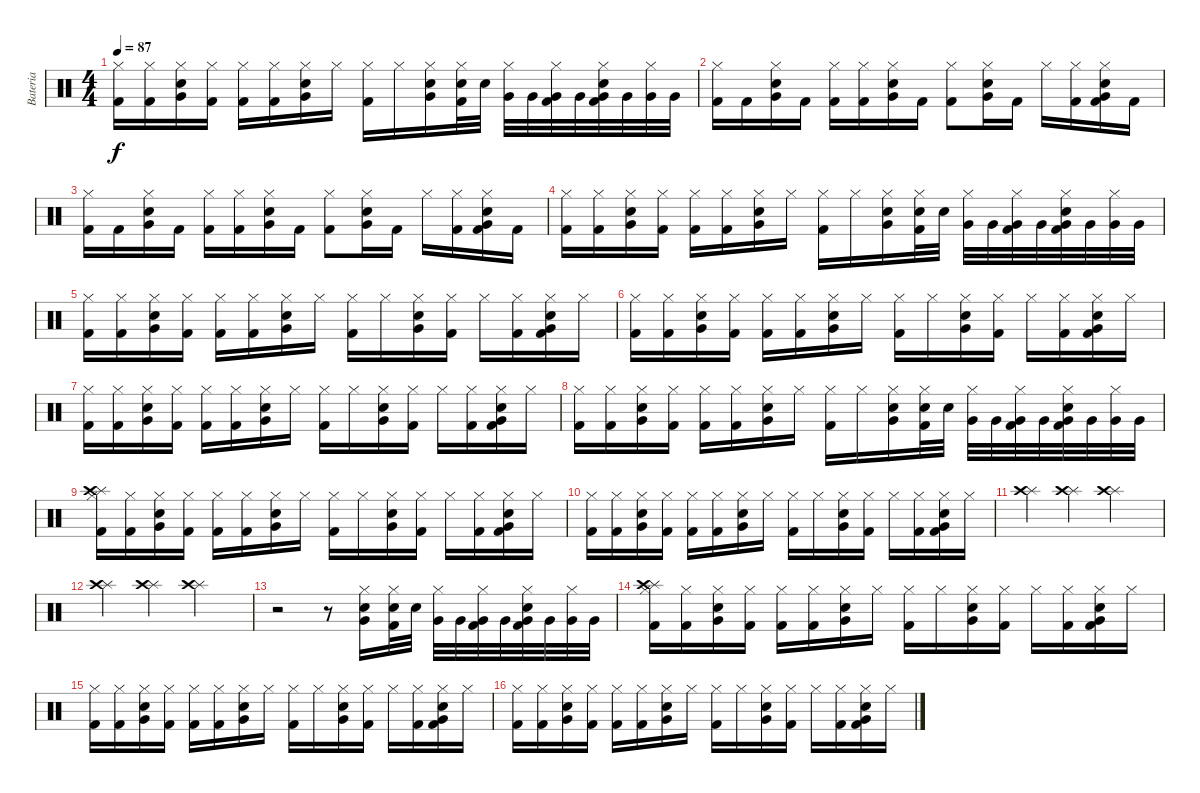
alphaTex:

\track ("Bateria" "Bateria") {instrument percussion}
\staff {score}
\articulation defaults
\ts (4 4)
\tempo 87
\clef neutral
\ks c
("Hi-Hat (closed)" "Kick (hit) 2").16{dy f} ("Hi-Hat (closed)" "Kick (hit) 2").16 ("Hi-Hat (closed)" "Snare (hit) 2" "Very Low Tom (hit)").16 ("Hi-Hat (closed)" "Kick (hit) 2").16 ("Hi-Hat (closed)" "Kick (hit) 2").16 ("Hi-Hat (closed)" "Kick (hit) 2").16 ("Hi-Hat (closed)" "Snare (hit) 2" "Very Low Tom (hit)").16 "Hi-Hat (closed)".16 ("Hi-Hat (closed)" "Kick (hit) 2").16 "Hi-Hat (closed)".16 ("Hi-Hat (closed)" "Snare (hit) 2" "Very Low Tom (hit)").16 ("Hi-Hat (closed)" "Kick (hit) 2" "Snare (hit) 2").32 "Snare (hit) 2".32 ("Hi-Hat (closed)" "Very Low Tom (hit)").32 "Very Low Tom (hit)".32 ("Hi-Hat (closed)" "Kick (hit) 2" "Very Low Tom (hit)").32 "Very Low Tom (hit)".32 ("Hi-Hat (closed)" "Kick (hit) 2" "Snare (hit) 2" "Very Low Tom (hit)").32 "Very Low Tom (hit)".32 ("Hi-Hat (closed)" "Very Low Tom (hit)").32 "Very Low Tom (hit)".32 |
("Hi-Hat (closed)" "Kick (hit) 2").16 "Kick (hit) 2".16 ("Hi-Hat (closed)" "Snare (hit) 2" "Very Low Tom (hit)").16 "Kick (hit) 2".16 ("Hi-Hat (closed)" "Kick (hit) 2").16 ("Hi-Hat (closed)" "Kick (hit) 2").16 ("Hi-Hat (closed)" "Snare (hit) 2" "Very Low Tom (hit)").16 "Kick (hit) 2".16 ("Hi-Hat (closed)" "Kick (hit) 2").8 ("Hi-Hat (closed)" "Snare (hit) 2" "Very Low Tom (hit)").16 "Kick (hit) 2".16 "Hi-Hat (closed)".16 ("Hi-Hat (closed)" "Kick (hit) 2").16 ("Hi-Hat (closed)" "Kick (hit) 2" "Snare (hit) 2" "Very Low Tom (hit)").16 "Kick (hit) 2".16 |
("Hi-Hat (closed)" "Kick (hit) 2").16 "Kick (hit) 2".16 ("Hi-Hat (closed)" "Snare (hit) 2" "Very Low Tom (hit)").16 "Kick (hit) 2".16 ("Hi-Hat (closed)" "Kick (hit) 2").16 ("Hi-Hat (closed)" "Kick (hit) 2").16 ("Hi-Hat (closed)" "Snare (hit) 2" "Very Low Tom (hit)").16 "Kick (hit) 2".16 ("Hi-Hat (closed)" "Kick (hit) 2").8 ("Hi-Hat (closed)" "Snare (hit) 2" "Very Low Tom (hit)").16 "Kick (hit) 2".16 "Hi-Hat (closed)".16 ("Hi-Hat (closed)" "Kick (hit) 2").16 ("Hi-Hat (closed)" "Kick (hit) 2" "Snare (hit) 2" "Very Low Tom (hit)").16 "Kick (hit) 2".16 |
("Hi-Hat (closed)" "Kick (hit) 2").16 ("Hi-Hat (closed)" "Kick (hit) 2").16 ("Hi-Hat (closed)" "Snare (hit) 2" "Very Low Tom (hit)").16 ("Hi-Hat (closed)" "Kick (hit) 2").16 ("Hi-Hat (closed)" "Kick (hit) 2").16 ("Hi-Hat (closed)" "Kick (hit) 2").16 ("Hi-Hat (closed)" "Snare (hit) 2" "Very Low Tom (hit)").16 "Hi-Hat (closed)".16 ("Hi-Hat (closed)" "Kick (hit) 2").16 "Hi-Hat (closed)".16 ("Hi-Hat (closed)" "Snare (hit) 2" "Very Low Tom (hit)").16 ("Hi-Hat (closed)" "Kick (hit) 2" "Snare (hit) 2").32 "Snare (hit) 2".32 ("Hi-Hat (closed)" "Very Low Tom (hit)").32 "Very Low Tom (hit)".32 ("Hi-Hat (closed)" "Kick (hit) 2" "Very Low Tom (hit)").32 "Very Low Tom (hit)".32 ("Hi-Hat (closed)" "Kick (hit) 2" "Snare (hit) 2" "Very Low Tom (hit)").32 "Very Low Tom (hit)".32 ("Hi-Hat (closed)" "Very Low Tom (hit)").32 "Very Low Tom (hit)".32 |
("Hi-Hat (closed)" "Kick (hit) 2").16 ("Hi-Hat (closed)" "Kick (hit) 2").16 ("Hi-Hat (closed)" "Snare (hit) 2" "Very Low Tom (hit)").16 ("Hi-Hat (closed)" "Kick (hit) 2").16 ("Hi-Hat (closed)" "Kick (hit) 2").16 ("Hi-Hat (closed)" "Kick (hit) 2").16 ("Hi-Hat (closed)" "Snare (hit) 2" "Very Low Tom (hit)").16 "Hi-Hat (closed)".16 ("Hi-Hat (closed)" "Kick (hit) 2").16 "Hi-Hat (closed)".16 ("Hi-Hat (closed)" "Snare (hit) 2" "Very Low Tom (hit)").16 ("Hi-Hat (closed)" "Kick (hit) 2").16 "Hi-Hat (closed)".16 ("Hi-Hat (closed)" "Kick (hit) 2").16 ("Hi-Hat (closed)" "Kick (hit) 2" "Snare (hit) 2" "Very Low Tom (hit)").16 "Hi-Hat (closed)".16 |
("Hi-Hat (closed)" "Kick (hit) 2").16 ("Hi-Hat (closed)" "Kick (hit) 2").16 ("Hi-Hat (closed)" "Snare (hit) 2" "Very Low Tom (hit)").16 ("Hi-Hat (closed)" "Kick (hit) 2").16 ("Hi-Hat (closed)" "Kick (hit) 2").16 ("Hi-Hat (closed)" "Kick (hit) 2").16 ("Hi-Hat (closed)" "Snare (hit) 2" "Very Low Tom (hit)").16 "Hi-Hat (closed)".16 ("Hi-Hat (closed)" "Kick (hit) 2").16 "Hi-Hat (closed)".16 ("Hi-Hat (closed)" "Snare (hit) 2" "Very Low Tom (hit)").16 ("Hi-Hat (closed)" "Kick (hit) 2").16 "Hi-Hat (closed)".16 ("Hi-Hat (closed)" "Kick (hit) 2").16 ("Hi-Hat (closed)" "Kick (hit) 2" "Snare (hit) 2" "Very Low Tom (hit)").16 "Hi-Hat (closed)".16 |
("Hi-Hat (closed)" "Kick (hit) 2").16 ("Hi-Hat (closed)" "Kick (hit) 2").16 ("Hi-Hat (closed)" "Snare (hit) 2" "Very Low Tom (hit)").16 ("Hi-Hat (closed)" "Kick (hit) 2").16 ("Hi-Hat (closed)" "Kick (hit) 2").16 ("Hi-Hat (closed)" "Kick (hit) 2").16 ("Hi-Hat (closed)" "Snare (hit) 2" "Very Low Tom (hit)").16 "Hi-Hat (closed)".16 ("Hi-Hat (closed)" "Kick (hit) 2").16 "Hi-Hat (closed)".16 ("Hi-Hat (closed)" "Snare (hit) 2" "Very Low Tom (hit)").16 ("Hi-Hat (closed)" "Kick (hit) 2").16 "Hi-Hat (closed)".16 ("Hi-Hat (closed)" "Kick (hit) 2").16 ("Hi-Hat (closed)" "Kick (hit) 2" "Snare (hit) 2" "Very Low Tom (hit)").16 "Hi-Hat (closed)".16 |
("Hi-Hat (closed)" "Kick (hit) 2").16 ("Hi-Hat (closed)" "Kick (hit) 2").16 ("Hi-Hat (closed)" "Snare (hit) 2" "Very Low Tom (hit)").16 ("Hi-Hat (closed)" "Kick (hit) 2").16 ("Hi-Hat (closed)" "Kick (hit) 2").16 ("Hi-Hat (closed)" "Kick (hit) 2").16 ("Hi-Hat (closed)" "Snare (hit) 2" "Very Low Tom (hit)").16 "Hi-Hat (closed)".16 ("Hi-Hat (closed)" "Kick (hit) 2").16 "Hi-Hat (closed)".16 ("Hi-Hat (closed)" "Snare (hit) 2" "Very Low Tom (hit)").16 ("Hi-Hat (closed)" "Kick (hit) 2" "Snare (hit) 2").32 "Snare (hit) 2".32 ("Hi-Hat (closed)" "Very Low Tom (hit)").32 "Very Low Tom (hit)".32 ("Hi-Hat (closed)" "Kick (hit) 2" "Very Low Tom (hit)").32 "Very Low Tom (hit)".32 ("Hi-Hat (closed)" "Kick (hit) 2" "Snare (hit) 2" "Very Low Tom (hit)").32 "Very Low Tom (hit)".32 ("Hi-Hat (closed)" "Very Low Tom (hit)").32 "Very Low Tom (hit)".32 |
("Hi-Hat (closed)" "Kick (hit) 2" "Splash (hit)" "Crash high (hit)").16 ("Hi-Hat (closed)" "Kick (hit) 2").16 ("Hi-Hat (closed)" "Snare (hit) 2" "Very Low Tom (hit)").16 ("Hi-Hat (closed)" "Kick (hit) 2").16 ("Hi-Hat (closed)" "Kick (hit) 2").16 ("Hi-Hat (closed)" "Kick (hit) 2").16 ("Hi-Hat (closed)" "Snare (hit) 2" "Very Low Tom (hit)").16 "Hi-Hat (closed)".16 ("Hi-Hat (closed)" "Kick (hit) 2").16 "Hi-Hat (closed)".16 ("Hi-Hat (closed)" "Snare (hit) 2" "Very Low Tom (hit)").16 ("Hi-Hat (closed)" "Kick (hit) 2").16 "Hi-Hat (closed)".16 ("Hi-Hat (closed)" "Kick (hit) 2").16 ("Hi-Hat (closed)" "Kick (hit) 2" "Snare (hit) 2" "Very Low Tom (hit)").16 "Hi-Hat (closed)".16 |
("Hi-Hat (closed)" "Kick (hit) 2").16 ("Hi-Hat (closed)" "Kick (hit) 2").16 ("Hi-Hat (closed)" "Snare (hit) 2" "Very Low Tom (hit)").16 ("Hi-Hat (closed)" "Kick (hit) 2").16 ("Hi-Hat (closed)" "Kick (hit) 2").16 ("Hi-Hat (closed)" "Kick (hit) 2").16 ("Hi-Hat (closed)" "Snare (hit) 2" "Very Low Tom (hit)").16 "Hi-Hat (closed)".16 ("Hi-Hat (closed)" "Kick (hit) 2").16 "Hi-Hat (closed)".16 ("Hi-Hat (closed)" "Snare (hit) 2" "Very Low Tom (hit)").16 ("Hi-Hat (closed)" "Kick (hit) 2").16 "Hi-Hat (closed)".16 ("Hi-Hat (closed)" "Kick (hit) 2").16 ("Hi-Hat (closed)" "Kick (hit) 2" "Snare (hit) 2" "Very Low Tom (hit)").16 "Hi-Hat (closed)".16 |
("Splash (hit)" "Crash high (hit)").4 ("Splash (hit)" "Crash high (hit)").4 ("Splash (hit)" "Crash high (hit)").2 |
("Splash (hit)" "Crash high (hit)").4 ("Splash (hit)" "Crash high (hit)").4 ("Splash (hit)" "Crash high (hit)").2 |
r.2 r.8 ("Hi-Hat (closed)" "Snare (hit) 2" "Very Low Tom (hit)").16 ("Hi-Hat (closed)" "Kick (hit) 2" "Snare (hit) 2").32 "Snare (hit) 2".32 ("Hi-Hat (closed)" "Very Low Tom (hit)").32 "Very Low Tom (hit)".32 ("Hi-Hat (closed)" "Kick (hit) 2" "Very Low Tom (hit)").32 "Very Low Tom (hit)".32 ("Hi-Hat (closed)" "Kick (hit) 2" "Snare (hit) 2" "Very Low Tom (hit)").32 "Very Low Tom (hit)".32 ("Hi-Hat (closed)" "Very Low Tom (hit)").32 "Very Low Tom (hit)".32 |
("Hi-Hat (closed)" "Kick (hit) 2" "Splash (hit)" "Crash high (hit)").16 ("Hi-Hat (closed)" "Kick (hit) 2").16 ("Hi-Hat (closed)" "Snare (hit) 2" "Very Low Tom (hit)").16 ("Hi-Hat (closed)" "Kick (hit) 2").16 ("Hi-Hat (closed)" "Kick (hit) 2").16 ("Hi-Hat (closed)" "Kick (hit) 2").16 ("Hi-Hat (closed)" "Snare (hit) 2" "Very Low Tom (hit)").16 "Hi-Hat (closed)".16 ("Hi-Hat (closed)" "Kick (hit) 2").16 "Hi-Hat (closed)".16 ("Hi-Hat (closed)" "Snare (hit) 2" "Very Low Tom (hit)").16 ("Hi-Hat (closed)" "Kick (hit) 2").16 "Hi-Hat (closed)".16 ("Hi-Hat (closed)" "Kick (hit) 2").16 ("Hi-Hat (closed)" "Kick (hit) 2" "Snare (hit) 2" "Very Low Tom (hit)").16 "Hi-Hat (closed)".16 |
("Hi-Hat (closed)" "Kick (hit) 2").16 ("Hi-Hat (closed)" "Kick (hit) 2").16 ("Hi-Hat (closed)" "Snare (hit) 2" "Very Low Tom (hit)").16 ("Hi-Hat (closed)" "Kick (hit) 2").16 ("Hi-Hat (closed)" "Kick (hit) 2").16 ("Hi-Hat (closed)" "Kick (hit) 2").16 ("Hi-Hat (closed)" "Snare (hit) 2" "Very Low Tom (hit)").16 "Hi-Hat (closed)".16 ("Hi-Hat (closed)" "Kick (hit) 2").16 "Hi-Hat (closed)".16 ("Hi-Hat (closed)" "Snare (hit) 2" "Very Low Tom (hit)").16 ("Hi-Hat (closed)" "Kick (hit) 2").16 "Hi-Hat (closed)".16 ("Hi-Hat (closed)" "Kick (hit) 2").16 ("Hi-Hat (closed)" "Kick (hit) 2" "Snare (hit) 2" "Very Low Tom (hit)").16 "Hi-Hat (closed)".16 |
("Hi-Hat (closed)" "Kick (hit) 2").16 ("Hi-Hat (closed)" "Kick (hit) 2").16 ("Hi-Hat (closed)" "Snare (hit) 2" "Very Low Tom (hit)").16 ("Hi-Hat (closed)" "Kick (hit) 2").16 ("Hi-Hat (closed)" "Kick (hit) 2").16 ("Hi-Hat (closed)" "Kick (hit) 2").16 ("Hi-Hat (closed)" "Snare (hit) 2" "Very Low Tom (hit)").16 "Hi-Hat (closed)".16 ("Hi-Hat (closed)" "Kick (hit) 2").16 "Hi-Hat (closed)".16 ("Hi-Hat (closed)" "Snare (hit) 2" "Very Low Tom (hit)").16 ("Hi-Hat (closed)" "Kick (hit) 2").16 "Hi-Hat (closed)".16 ("Hi-Hat (closed)" "Kick (hit) 2").16 ("Hi-Hat (closed)" "Kick (hit) 2" "Snare (hit) 2" "Very Low Tom (hit)").16 "Hi-Hat (closed)".16
